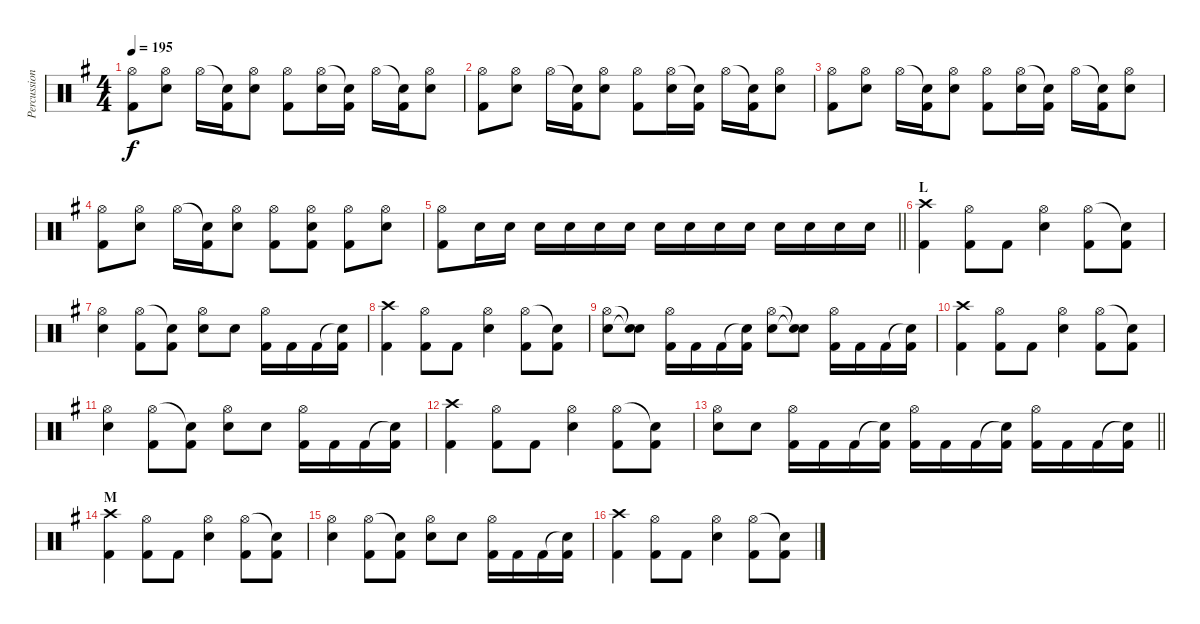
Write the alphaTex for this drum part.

\track ("Percussion" "Percussion") {instrument percussion}
\staff {score}
\articulation defaults
\ts (4 4)
\tempo 195
\clef neutral
\ks g
("Hi-Hat (open)" "Kick (hit) 2").8{dy f} ("Hi-Hat (open)" "Electric Snare (hit)").8 "Hi-Hat (open)".16 ("Snare (hit)"{t} "Kick (hit) 2").16 ("Hi-Hat (open)" "Electric Snare (hit)").8 ("Hi-Hat (open)" "Kick (hit) 2").8 ("Hi-Hat (open)" "Electric Snare (hit)").16 ("Snare (hit)"{t} "Kick (hit) 2").16 "Hi-Hat (open)".16 ("Snare (hit)"{t} "Kick (hit) 2").16 ("Hi-Hat (open)" "Electric Snare (hit)").8 |
("Hi-Hat (open)" "Kick (hit) 2").8 ("Hi-Hat (open)" "Electric Snare (hit)").8 "Hi-Hat (open)".16 ("Snare (hit)"{t} "Kick (hit) 2").16 ("Hi-Hat (open)" "Electric Snare (hit)").8 ("Hi-Hat (open)" "Kick (hit) 2").8 ("Hi-Hat (open)" "Electric Snare (hit)").16 ("Snare (hit)"{t} "Kick (hit) 2").16 "Hi-Hat (open)".16 ("Snare (hit)"{t} "Kick (hit) 2").16 ("Hi-Hat (open)" "Electric Snare (hit)").8 |
("Hi-Hat (open)" "Kick (hit) 2").8 ("Hi-Hat (open)" "Electric Snare (hit)").8 "Hi-Hat (open)".16 ("Snare (hit)"{t} "Kick (hit) 2").16 ("Hi-Hat (open)" "Electric Snare (hit)").8 ("Hi-Hat (open)" "Kick (hit) 2").8 ("Hi-Hat (open)" "Electric Snare (hit)").16 ("Snare (hit)"{t} "Kick (hit) 2").16 "Hi-Hat (open)".16 ("Snare (hit)"{t} "Kick (hit) 2").16 ("Hi-Hat (open)" "Electric Snare (hit)").8 |
("Hi-Hat (open)" "Kick (hit) 2").8 ("Hi-Hat (open)" "Electric Snare (hit)").8 "Hi-Hat (open)".16 ("Snare (hit)"{t} "Kick (hit) 2").16 ("Hi-Hat (open)" "Electric Snare (hit)").8 ("Hi-Hat (open)" "Kick (hit) 2").8 ("Hi-Hat (open)" "Electric Snare (hit)" "Kick (hit) 2").8 ("Hi-Hat (open)" "Kick (hit) 2").8 ("Electric Snare (hit)" "Hi-Hat (open)").8 |
\barLineRight lightlight
("Hi-Hat (open)" "Kick (hit) 2").8 "Electric Snare (hit)".16 "Electric Snare (hit)".16 "Electric Snare (hit)".16 "Electric Snare (hit)".16 "Electric Snare (hit)".16 "Electric Snare (hit)".16 "Electric Snare (hit)".16 "Electric Snare (hit)".16 "Electric Snare (hit)".16 "Electric Snare (hit)".16 "Electric Snare (hit)".16 "Electric Snare (hit)".16 "Electric Snare (hit)".16 "Electric Snare (hit)".16 |
\section ("" "L")
("Crash high (hit)" "Kick (hit) 2").4 ("Hi-Hat (open)" "Kick (hit) 2").8 "Kick (hit) 2".8 ("Hi-Hat (open)" "Electric Snare (hit)").4 ("Hi-Hat (open)" "Kick (hit) 2").8 ("Snare (hit)"{t} "Kick (hit) 2").8 |
("Hi-Hat (open)" "Electric Snare (hit)").4 ("Hi-Hat (open)" "Kick (hit) 2").8 ("Snare (hit)"{t} "Kick (hit) 2").8 ("Hi-Hat (open)" "Electric Snare (hit)").8 "Electric Snare (hit)".8 ("Hi-Hat (open)" "Kick (hit) 2").16 "Kick (hit) 2".16 "Kick (hit) 2".16 ("Snare (hit)"{t} "Kick (hit) 2").16 |
("Crash high (hit)" "Kick (hit) 2").4 ("Hi-Hat (open)" "Kick (hit) 2").8 "Kick (hit) 2".8 ("Hi-Hat (open)" "Electric Snare (hit)").4 ("Hi-Hat (open)" "Kick (hit) 2").8 ("Snare (hit)"{t} "Kick (hit) 2").8 |
("Hi-Hat (open)" "Electric Snare (hit)").8 ("Snare (hit)"{t} "Electric Snare (hit)"{t}).8 ("Hi-Hat (open)" "Kick (hit) 2").16 "Kick (hit) 2".16 "Kick (hit) 2".16 ("Snare (hit)"{t} "Kick (hit) 2").16 ("Hi-Hat (open)" "Electric Snare (hit)").8 ("Snare (hit)"{t} "Electric Snare (hit)"{t}).8 ("Hi-Hat (open)" "Kick (hit) 2").16 "Kick (hit) 2".16 "Kick (hit) 2".16 ("Snare (hit)"{t} "Kick (hit) 2").16 |
("Crash high (hit)" "Kick (hit) 2").4 ("Hi-Hat (open)" "Kick (hit) 2").8 "Kick (hit) 2".8 ("Hi-Hat (open)" "Electric Snare (hit)").4 ("Hi-Hat (open)" "Kick (hit) 2").8 ("Snare (hit)"{t} "Kick (hit) 2").8 |
("Hi-Hat (open)" "Electric Snare (hit)").4 ("Hi-Hat (open)" "Kick (hit) 2").8 ("Snare (hit)"{t} "Kick (hit) 2").8 ("Hi-Hat (open)" "Electric Snare (hit)").8 "Electric Snare (hit)".8 ("Hi-Hat (open)" "Kick (hit) 2").16 "Kick (hit) 2".16 "Kick (hit) 2".16 ("Snare (hit)"{t} "Kick (hit) 2").16 |
("Crash high (hit)" "Kick (hit) 2").4 ("Hi-Hat (open)" "Kick (hit) 2").8 "Kick (hit) 2".8 ("Hi-Hat (open)" "Electric Snare (hit)").4 ("Hi-Hat (open)" "Kick (hit) 2").8 ("Snare (hit)"{t} "Kick (hit) 2").8 |
\barLineRight lightlight
("Hi-Hat (open)" "Electric Snare (hit)").8 "Electric Snare (hit)".8 ("Hi-Hat (open)" "Kick (hit) 2").16 "Kick (hit) 2".16 "Kick (hit) 2".16 ("Snare (hit)"{t} "Kick (hit) 2").16 ("Hi-Hat (open)" "Kick (hit) 2").16 "Kick (hit) 2".16 "Kick (hit) 2".16 ("Snare (hit)"{t} "Kick (hit) 2").16 ("Hi-Hat (open)" "Kick (hit) 2").16 "Kick (hit) 2".16 "Kick (hit) 2".16 ("Snare (hit)"{t} "Kick (hit) 2").16 |
\section ("" "M")
("Crash high (hit)" "Kick (hit) 2").4 ("Hi-Hat (open)" "Kick (hit) 2").8 "Kick (hit) 2".8 ("Hi-Hat (open)" "Electric Snare (hit)").4 ("Hi-Hat (open)" "Kick (hit) 2").8 ("Snare (hit)"{t} "Kick (hit) 2").8 |
("Hi-Hat (open)" "Electric Snare (hit)").4 ("Hi-Hat (open)" "Kick (hit) 2").8 ("Snare (hit)"{t} "Kick (hit) 2").8 ("Hi-Hat (open)" "Electric Snare (hit)").8 "Electric Snare (hit)".8 ("Hi-Hat (open)" "Kick (hit) 2").16 "Kick (hit) 2".16 "Kick (hit) 2".16 ("Snare (hit)"{t} "Kick (hit) 2").16 |
("Crash high (hit)" "Kick (hit) 2").4 ("Hi-Hat (open)" "Kick (hit) 2").8 "Kick (hit) 2".8 ("Hi-Hat (open)" "Electric Snare (hit)").4 ("Hi-Hat (open)" "Kick (hit) 2").8 ("Snare (hit)"{t} "Kick (hit) 2").8
